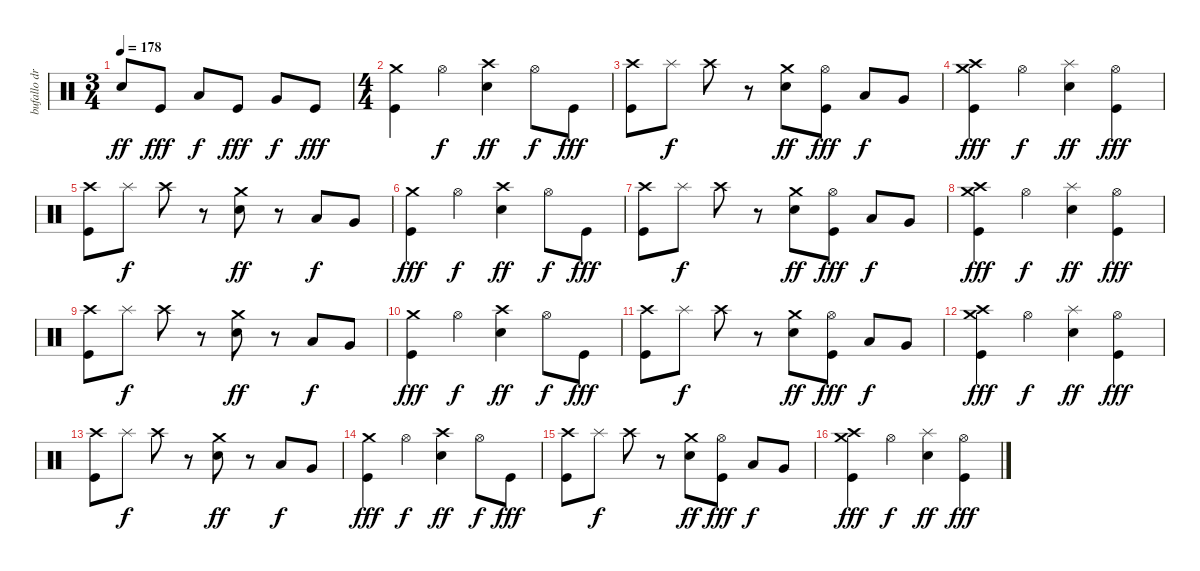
\track ("bufallo drums" "bufallo dr") {instrument percussion}
\staff {score}
\articulation defaults
\ts (3 4)
\tempo 178
\clef neutral
\ks c "Electric Snare (hit)".8{dy ff} "Kick (hit)".8{dy fff} "Low Tom (hit)".8{dy f} "Kick (hit)".8{dy fff} "Very Low Tom (hit)".8{dy f} "Kick (hit)".8{dy fff}
|
\ts (4 4)
("Crash medium (hit)" "Kick (hit)").4 "Hi-Hat (open)".4{dy f} ("Electric Snare (hit)" "Crash high (hit)").4{dy ff} "Hi-Hat (open)".8{dy f} "Kick (hit)".8{dy fff} |
("Crash high (hit)" "Kick (hit)").8 "Splash (hit)".8{dy f} "Crash high (hit)".8 r.8 ("Crash medium (hit)" "Electric Snare (hit)").8{dy ff} ("Hi-Hat (open)" "Kick (hit)").8{dy fff} "Low Tom (hit)".8{dy f} "Very Low Tom (hit)".8 |
("Crash medium (hit)" "Crash high (hit)" "Kick (hit)").4{dy fff} "Hi-Hat (open)".4{dy f} ("Splash (hit)" "Electric Snare (hit)").4{dy ff} ("Hi-Hat (open)" "Kick (hit)").4{dy fff} |
("Crash high (hit)" "Kick (hit)").8 "Splash (hit)".8{dy f} "Crash high (hit)".8 r.8 ("Crash medium (hit)" "Electric Snare (hit)").8{dy ff} r.8 "Low Tom (hit)".8{dy f} "Very Low Tom (hit)".8 |
("Crash medium (hit)" "Kick (hit)").4{dy fff} "Hi-Hat (open)".4{dy f} ("Electric Snare (hit)" "Crash high (hit)").4{dy ff} "Hi-Hat (open)".8{dy f} "Kick (hit)".8{dy fff} |
("Crash high (hit)" "Kick (hit)").8 "Splash (hit)".8{dy f} "Crash high (hit)".8 r.8 ("Crash medium (hit)" "Electric Snare (hit)").8{dy ff} ("Hi-Hat (open)" "Kick (hit)").8{dy fff} "Low Tom (hit)".8{dy f} "Very Low Tom (hit)".8 |
("Crash medium (hit)" "Crash high (hit)" "Kick (hit)").4{dy fff} "Hi-Hat (open)".4{dy f} ("Splash (hit)" "Electric Snare (hit)").4{dy ff} ("Hi-Hat (open)" "Kick (hit)").4{dy fff} |
("Crash high (hit)" "Kick (hit)").8 "Splash (hit)".8{dy f} "Crash high (hit)".8 r.8 ("Crash medium (hit)" "Electric Snare (hit)").8{dy ff} r.8 "Low Tom (hit)".8{dy f} "Very Low Tom (hit)".8 |
("Crash medium (hit)" "Kick (hit)").4{dy fff} "Hi-Hat (open)".4{dy f} ("Electric Snare (hit)" "Crash high (hit)").4{dy ff} "Hi-Hat (open)".8{dy f} "Kick (hit)".8{dy fff} |
("Crash high (hit)" "Kick (hit)").8 "Splash (hit)".8{dy f} "Crash high (hit)".8 r.8 ("Crash medium (hit)" "Electric Snare (hit)").8{dy ff} ("Hi-Hat (open)" "Kick (hit)").8{dy fff} "Low Tom (hit)".8{dy f} "Very Low Tom (hit)".8 |
("Crash medium (hit)" "Crash high (hit)" "Kick (hit)").4{dy fff} "Hi-Hat (open)".4{dy f} ("Splash (hit)" "Electric Snare (hit)").4{dy ff} ("Hi-Hat (open)" "Kick (hit)").4{dy fff} |
("Crash high (hit)" "Kick (hit)").8 "Splash (hit)".8{dy f} "Crash high (hit)".8 r.8 ("Crash medium (hit)" "Electric Snare (hit)").8{dy ff} r.8 "Low Tom (hit)".8{dy f} "Very Low Tom (hit)".8 |
("Crash medium (hit)" "Kick (hit)").4{dy fff} "Hi-Hat (open)".4{dy f} ("Electric Snare (hit)" "Crash high (hit)").4{dy ff} "Hi-Hat (open)".8{dy f} "Kick (hit)".8{dy fff} |
("Crash high (hit)" "Kick (hit)").8 "Splash (hit)".8{dy f} "Crash high (hit)".8 r.8 ("Crash medium (hit)" "Electric Snare (hit)").8{dy ff} ("Hi-Hat (open)" "Kick (hit)").8{dy fff} "Low Tom (hit)".8{dy f} "Very Low Tom (hit)".8 |
("Crash medium (hit)" "Crash high (hit)" "Kick (hit)").4{dy fff} "Hi-Hat (open)".4{dy f} ("Splash (hit)" "Electric Snare (hit)").4{dy ff} ("Hi-Hat (open)" "Kick (hit)").4{dy fff}
